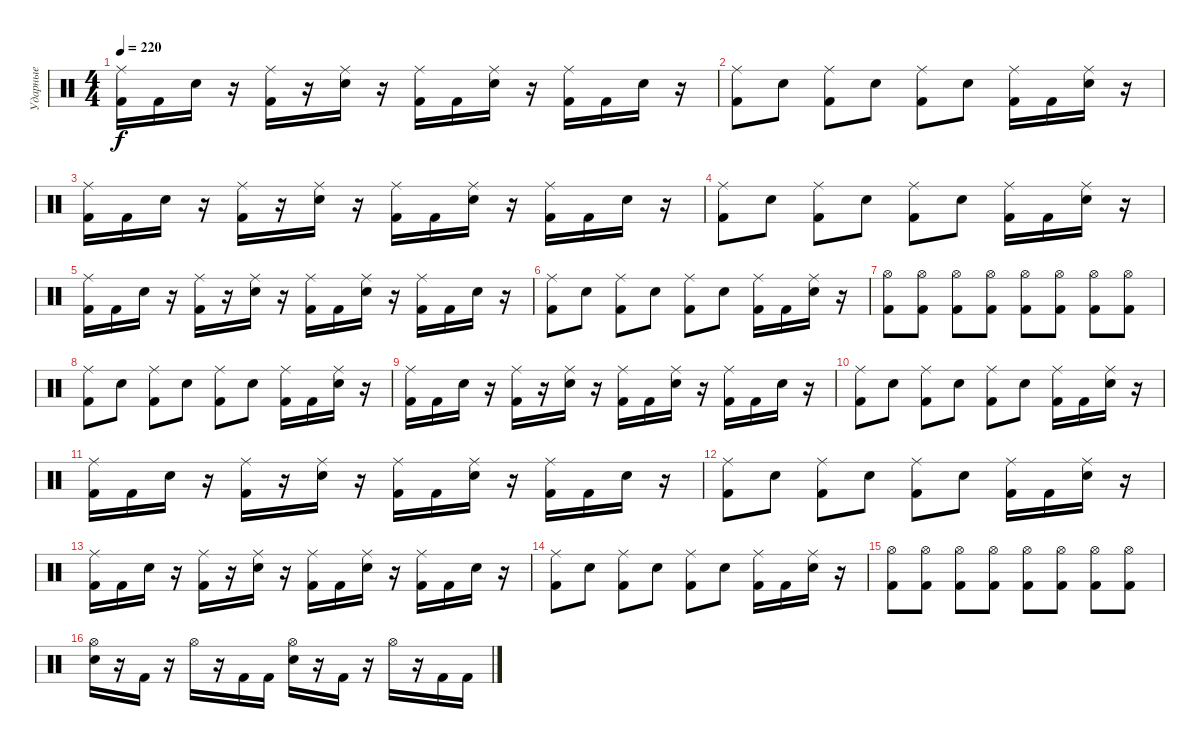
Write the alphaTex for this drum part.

\track ("Ударные" "Ударные") {instrument percussion}
\staff {score}
\articulation defaults
\ts (4 4)
\tempo 220
\clef neutral
\ks c
("Ride (middle)" "Kick (hit) 2").16{dy f} "Kick (hit) 2".16 "Electric Snare (hit)".16 r.16 ("Ride (middle)" "Kick (hit) 2").16 r.16 ("Ride (middle)" "Electric Snare (hit)").16 r.16 ("Kick (hit) 2" "Ride (middle)").16 "Kick (hit) 2".16 ("Ride (middle)" "Electric Snare (hit)").16 r.16 ("Kick (hit) 2" "Ride (middle)").16 "Kick (hit) 2".16 "Electric Snare (hit)".16 r.16 |
("Ride (middle)" "Kick (hit) 2").8 "Electric Snare (hit)".8 ("Kick (hit) 2" "Ride (middle)").8 "Electric Snare (hit)".8 ("Ride (middle)" "Kick (hit) 2").8 "Electric Snare (hit)".8 ("Ride (middle)" "Kick (hit) 2").16 "Kick (hit) 2".16 ("Ride (middle)" "Electric Snare (hit)").16 r.16 |
("Ride (middle)" "Kick (hit) 2").16 "Kick (hit) 2".16 "Electric Snare (hit)".16 r.16 ("Ride (middle)" "Kick (hit) 2").16 r.16 ("Ride (middle)" "Electric Snare (hit)").16 r.16 ("Kick (hit) 2" "Ride (middle)").16 "Kick (hit) 2".16 ("Ride (middle)" "Electric Snare (hit)").16 r.16 ("Kick (hit) 2" "Ride (middle)").16 "Kick (hit) 2".16 "Electric Snare (hit)".16 r.16 |
("Ride (middle)" "Kick (hit) 2").8 "Electric Snare (hit)".8 ("Kick (hit) 2" "Ride (middle)").8 "Electric Snare (hit)".8 ("Ride (middle)" "Kick (hit) 2").8 "Electric Snare (hit)".8 ("Ride (middle)" "Kick (hit) 2").16 "Kick (hit) 2".16 ("Ride (middle)" "Electric Snare (hit)").16 r.16 |
("Ride (middle)" "Kick (hit) 2").16 "Kick (hit) 2".16 "Electric Snare (hit)".16 r.16 ("Ride (middle)" "Kick (hit) 2").16 r.16 ("Ride (middle)" "Electric Snare (hit)").16 r.16 ("Kick (hit) 2" "Ride (middle)").16 "Kick (hit) 2".16 ("Ride (middle)" "Electric Snare (hit)").16 r.16 ("Kick (hit) 2" "Ride (middle)").16 "Kick (hit) 2".16 "Electric Snare (hit)".16 r.16 |
("Ride (middle)" "Kick (hit) 2").8 "Electric Snare (hit)".8 ("Kick (hit) 2" "Ride (middle)").8 "Electric Snare (hit)".8 ("Ride (middle)" "Kick (hit) 2").8 "Electric Snare (hit)".8 ("Ride (middle)" "Kick (hit) 2").16 "Kick (hit) 2".16 ("Ride (middle)" "Electric Snare (hit)").16 r.16 |
("Kick (hit) 2" "Hi-Hat (open)").8 ("Kick (hit) 2" "Hi-Hat (open)").8 ("Kick (hit) 2" "Hi-Hat (open)").8 ("Kick (hit) 2" "Hi-Hat (open)").8 ("Kick (hit) 2" "Hi-Hat (open)").8 ("Kick (hit) 2" "Hi-Hat (open)").8 ("Kick (hit) 2" "Hi-Hat (open)").8 ("Kick (hit) 2" "Hi-Hat (open)").8 |
("Ride (middle)" "Kick (hit) 2").8 "Electric Snare (hit)".8 ("Kick (hit) 2" "Ride (middle)").8 "Electric Snare (hit)".8 ("Ride (middle)" "Kick (hit) 2").8 "Electric Snare (hit)".8 ("Ride (middle)" "Kick (hit) 2").16 "Kick (hit) 2".16 ("Ride (middle)" "Electric Snare (hit)").16 r.16 |
("Ride (middle)" "Kick (hit) 2").16 "Kick (hit) 2".16 "Electric Snare (hit)".16 r.16 ("Ride (middle)" "Kick (hit) 2").16 r.16 ("Ride (middle)" "Electric Snare (hit)").16 r.16 ("Kick (hit) 2" "Ride (middle)").16 "Kick (hit) 2".16 ("Ride (middle)" "Electric Snare (hit)").16 r.16 ("Kick (hit) 2" "Ride (middle)").16 "Kick (hit) 2".16 "Electric Snare (hit)".16 r.16 |
("Ride (middle)" "Kick (hit) 2").8 "Electric Snare (hit)".8 ("Kick (hit) 2" "Ride (middle)").8 "Electric Snare (hit)".8 ("Ride (middle)" "Kick (hit) 2").8 "Electric Snare (hit)".8 ("Ride (middle)" "Kick (hit) 2").16 "Kick (hit) 2".16 ("Ride (middle)" "Electric Snare (hit)").16 r.16 |
("Ride (middle)" "Kick (hit) 2").16 "Kick (hit) 2".16 "Electric Snare (hit)".16 r.16 ("Ride (middle)" "Kick (hit) 2").16 r.16 ("Ride (middle)" "Electric Snare (hit)").16 r.16 ("Kick (hit) 2" "Ride (middle)").16 "Kick (hit) 2".16 ("Ride (middle)" "Electric Snare (hit)").16 r.16 ("Kick (hit) 2" "Ride (middle)").16 "Kick (hit) 2".16 "Electric Snare (hit)".16 r.16 |
("Ride (middle)" "Kick (hit) 2").8 "Electric Snare (hit)".8 ("Kick (hit) 2" "Ride (middle)").8 "Electric Snare (hit)".8 ("Ride (middle)" "Kick (hit) 2").8 "Electric Snare (hit)".8 ("Ride (middle)" "Kick (hit) 2").16 "Kick (hit) 2".16 ("Ride (middle)" "Electric Snare (hit)").16 r.16 |
("Ride (middle)" "Kick (hit) 2").16 "Kick (hit) 2".16 "Electric Snare (hit)".16 r.16 ("Ride (middle)" "Kick (hit) 2").16 r.16 ("Ride (middle)" "Electric Snare (hit)").16 r.16 ("Kick (hit) 2" "Ride (middle)").16 "Kick (hit) 2".16 ("Ride (middle)" "Electric Snare (hit)").16 r.16 ("Kick (hit) 2" "Ride (middle)").16 "Kick (hit) 2".16 "Electric Snare (hit)".16 r.16 |
("Ride (middle)" "Kick (hit) 2").8 "Electric Snare (hit)".8 ("Kick (hit) 2" "Ride (middle)").8 "Electric Snare (hit)".8 ("Ride (middle)" "Kick (hit) 2").8 "Electric Snare (hit)".8 ("Ride (middle)" "Kick (hit) 2").16 "Kick (hit) 2".16 ("Ride (middle)" "Electric Snare (hit)").16 r.16 |
("Kick (hit) 2" "Hi-Hat (open)").8 ("Kick (hit) 2" "Hi-Hat (open)").8 ("Kick (hit) 2" "Hi-Hat (open)").8 ("Kick (hit) 2" "Hi-Hat (open)").8 ("Kick (hit) 2" "Hi-Hat (open)").8 ("Kick (hit) 2" "Hi-Hat (open)").8 ("Kick (hit) 2" "Hi-Hat (open)").8 ("Kick (hit) 2" "Hi-Hat (open)").8 |
("Electric Snare (hit)" "Hi-Hat (open)").16 r.16 "Kick (hit) 2".16 r.16 "Hi-Hat (open)".16 r.16 "Kick (hit) 2".16 "Kick (hit) 2".16 ("Electric Snare (hit)" "Hi-Hat (open)").16 r.16 "Kick (hit) 2".16 r.16 "Hi-Hat (open)".16 r.16 "Kick (hit) 2".16 "Kick (hit) 2".16
